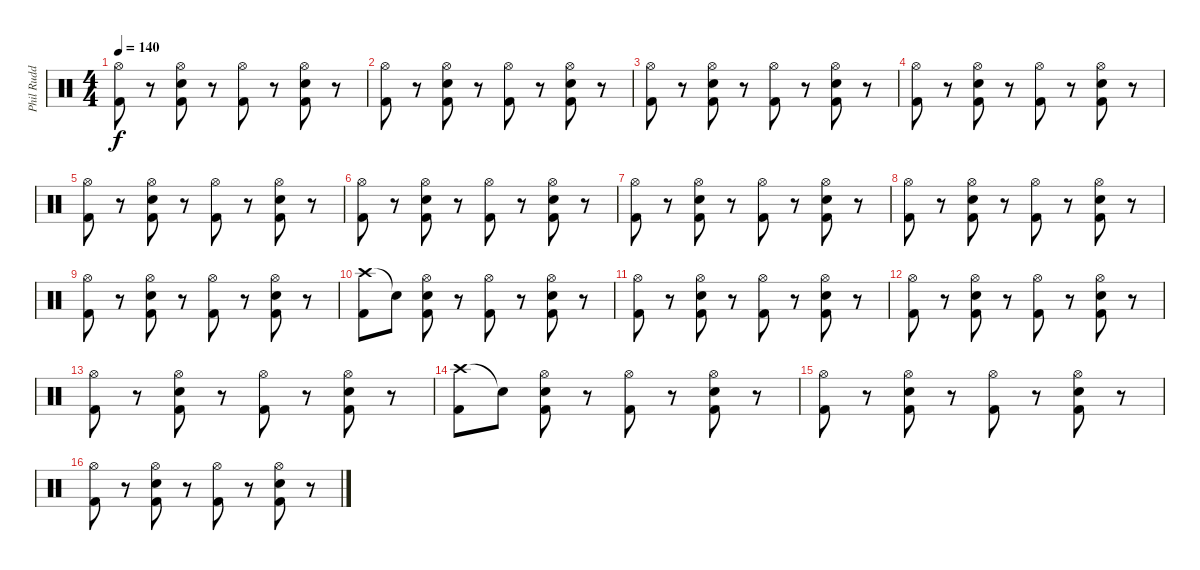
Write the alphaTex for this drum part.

\track ("Phil Rudd" "Phil Rudd") {instrument percussion}
\staff {score}
\articulation defaults
\ts (4 4)
\tempo 140
\clef neutral
\ks c
("Hi-Hat (open)" "Kick (hit) 2").8{dy f} r.8 ("Hi-Hat (open)" "Electric Snare (hit)" "Kick (hit) 2").8 r.8 ("Hi-Hat (open)" "Kick (hit) 2").8 r.8 ("Hi-Hat (open)" "Electric Snare (hit)" "Kick (hit) 2").8 r.8 |
("Hi-Hat (open)" "Kick (hit) 2").8 r.8 ("Hi-Hat (open)" "Electric Snare (hit)" "Kick (hit) 2").8 r.8 ("Hi-Hat (open)" "Kick (hit) 2").8 r.8 ("Hi-Hat (open)" "Electric Snare (hit)" "Kick (hit) 2").8 r.8 |
("Hi-Hat (open)" "Kick (hit) 2").8 r.8 ("Hi-Hat (open)" "Electric Snare (hit)" "Kick (hit) 2").8 r.8 ("Hi-Hat (open)" "Kick (hit) 2").8 r.8 ("Hi-Hat (open)" "Electric Snare (hit)" "Kick (hit) 2").8 r.8 |
("Hi-Hat (open)" "Kick (hit) 2").8 r.8 ("Hi-Hat (open)" "Electric Snare (hit)" "Kick (hit) 2").8 r.8 ("Hi-Hat (open)" "Kick (hit) 2").8 r.8 ("Hi-Hat (open)" "Electric Snare (hit)" "Kick (hit) 2").8 r.8 |
("Hi-Hat (open)" "Kick (hit) 2").8 r.8 ("Hi-Hat (open)" "Electric Snare (hit)" "Kick (hit) 2").8 r.8 ("Hi-Hat (open)" "Kick (hit) 2").8 r.8 ("Hi-Hat (open)" "Electric Snare (hit)" "Kick (hit) 2").8 r.8 |
("Hi-Hat (open)" "Kick (hit) 2").8 r.8 ("Hi-Hat (open)" "Electric Snare (hit)" "Kick (hit) 2").8 r.8 ("Hi-Hat (open)" "Kick (hit) 2").8 r.8 ("Hi-Hat (open)" "Electric Snare (hit)" "Kick (hit) 2").8 r.8 |
("Hi-Hat (open)" "Kick (hit) 2").8 r.8 ("Hi-Hat (open)" "Electric Snare (hit)" "Kick (hit) 2").8 r.8 ("Hi-Hat (open)" "Kick (hit) 2").8 r.8 ("Hi-Hat (open)" "Electric Snare (hit)" "Kick (hit) 2").8 r.8 |
("Hi-Hat (open)" "Kick (hit) 2").8 r.8 ("Hi-Hat (open)" "Electric Snare (hit)" "Kick (hit) 2").8 r.8 ("Hi-Hat (open)" "Kick (hit) 2").8 r.8 ("Hi-Hat (open)" "Electric Snare (hit)" "Kick (hit) 2").8 r.8 |
("Hi-Hat (open)" "Kick (hit) 2").8 r.8 ("Hi-Hat (open)" "Electric Snare (hit)" "Kick (hit) 2").8 r.8 ("Hi-Hat (open)" "Kick (hit) 2").8 r.8 ("Hi-Hat (open)" "Electric Snare (hit)" "Kick (hit) 2").8 r.8 |
("Crash high (hit)" "Kick (hit) 2").8 "Snare (hit)"{t}.8 ("Hi-Hat (open)" "Electric Snare (hit)" "Kick (hit) 2").8 r.8 ("Hi-Hat (open)" "Kick (hit) 2").8 r.8 ("Hi-Hat (open)" "Electric Snare (hit)" "Kick (hit) 2").8 r.8 |
("Hi-Hat (open)" "Kick (hit) 2").8 r.8 ("Hi-Hat (open)" "Electric Snare (hit)" "Kick (hit) 2").8 r.8 ("Hi-Hat (open)" "Kick (hit) 2").8 r.8 ("Hi-Hat (open)" "Electric Snare (hit)" "Kick (hit) 2").8 r.8 |
("Hi-Hat (open)" "Kick (hit) 2").8 r.8 ("Hi-Hat (open)" "Electric Snare (hit)" "Kick (hit) 2").8 r.8 ("Hi-Hat (open)" "Kick (hit) 2").8 r.8 ("Hi-Hat (open)" "Electric Snare (hit)" "Kick (hit) 2").8 r.8 |
("Hi-Hat (open)" "Kick (hit) 2").8 r.8 ("Hi-Hat (open)" "Electric Snare (hit)" "Kick (hit) 2").8 r.8 ("Hi-Hat (open)" "Kick (hit) 2").8 r.8 ("Hi-Hat (open)" "Electric Snare (hit)" "Kick (hit) 2").8 r.8 |
("Crash high (hit)" "Kick (hit) 2").8 "Snare (hit)"{t}.8 ("Hi-Hat (open)" "Electric Snare (hit)" "Kick (hit) 2").8 r.8 ("Hi-Hat (open)" "Kick (hit) 2").8 r.8 ("Hi-Hat (open)" "Electric Snare (hit)" "Kick (hit) 2").8 r.8 |
("Hi-Hat (open)" "Kick (hit) 2").8 r.8 ("Hi-Hat (open)" "Electric Snare (hit)" "Kick (hit) 2").8 r.8 ("Hi-Hat (open)" "Kick (hit) 2").8 r.8 ("Hi-Hat (open)" "Electric Snare (hit)" "Kick (hit) 2").8 r.8 |
("Hi-Hat (open)" "Kick (hit) 2").8 r.8 ("Hi-Hat (open)" "Electric Snare (hit)" "Kick (hit) 2").8 r.8 ("Hi-Hat (open)" "Kick (hit) 2").8 r.8 ("Hi-Hat (open)" "Electric Snare (hit)" "Kick (hit) 2").8 r.8
